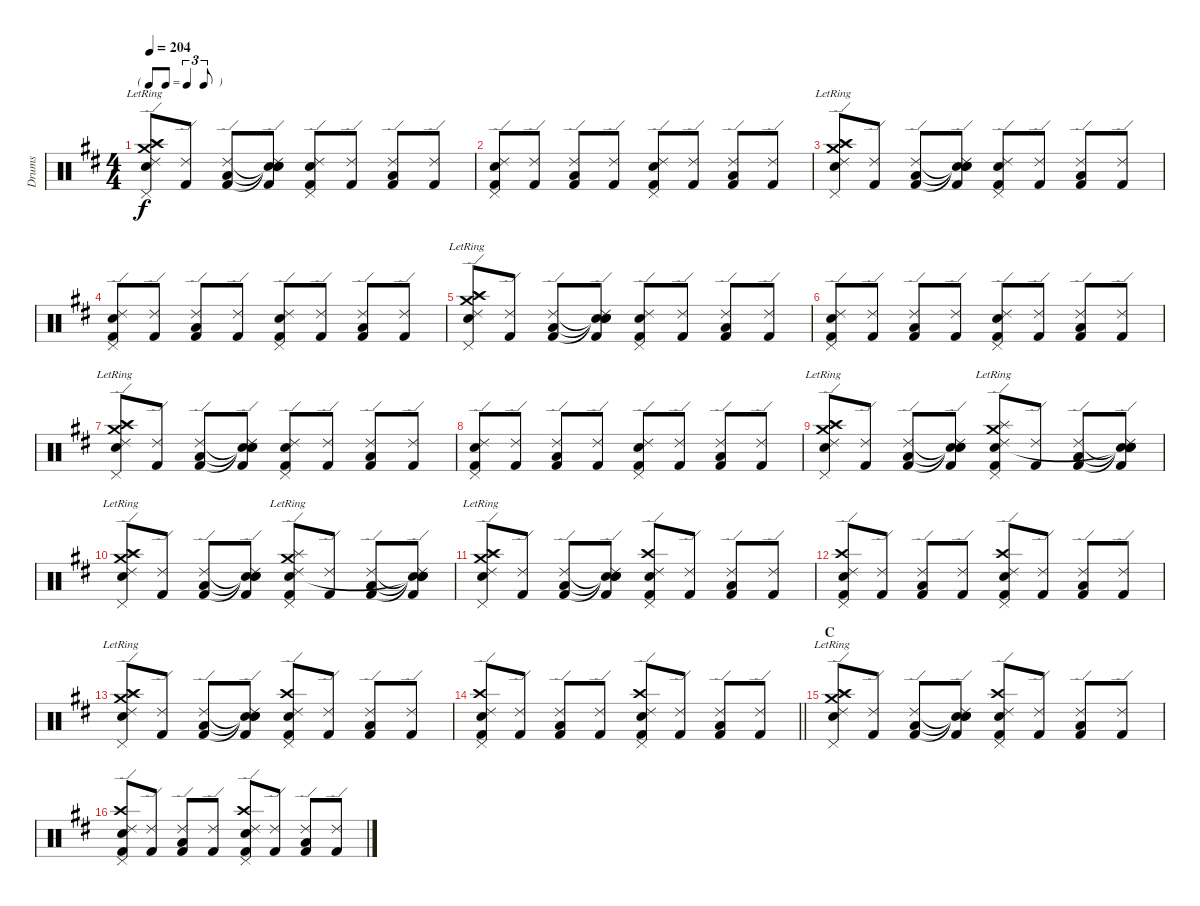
\track ("Drums" "Drums") {instrument percussion}
\staff {score}
\articulation defaults
\ts (4 4)
\tf triplet8th
\tempo 204
\clef neutral
\ks d
("Ride (edge) 2" "Crash medium (hit)" "Crash high (hit)"{lr} "Pedal Hi-Hat (hit)"{lr} "Splash (hit)"{lr} "Snare (hit) 2"{lr}).8{dy f} ("Kick (hit) 2" "Ride (edge) 2").8 ("Low Floor Tom (hit)" "Ride (edge) 2" "Kick (hit) 2").8 ("Snare (hit)"{t} "Snare (hit)"{t} "Snare (hit)"{t} "Kick (hit) 2" "Ride (edge) 2").8 ("Kick (hit) 2" "Snare (hit) 2" "Ride (edge) 2" "Pedal Hi-Hat (hit)").8 ("Kick (hit) 2" "Ride (edge) 2").8 ("Low Floor Tom (hit)" "Ride (edge) 2" "Kick (hit) 2").8 ("Kick (hit) 2" "Ride (edge) 2").8 |
("Kick (hit) 2" "Snare (hit) 2" "Ride (edge) 2" "Pedal Hi-Hat (hit)").8 ("Kick (hit) 2" "Ride (edge) 2").8 ("Low Floor Tom (hit)" "Ride (edge) 2" "Kick (hit) 2").8 ("Kick (hit) 2" "Ride (edge) 2").8 ("Kick (hit) 2" "Snare (hit) 2" "Ride (edge) 2" "Pedal Hi-Hat (hit)").8 ("Kick (hit) 2" "Ride (edge) 2").8 ("Low Floor Tom (hit)" "Ride (edge) 2" "Kick (hit) 2").8 ("Kick (hit) 2" "Ride (edge) 2").8 |
("Ride (edge) 2" "Crash medium (hit)" "Crash high (hit)"{lr} "Pedal Hi-Hat (hit)"{lr} "Splash (hit)"{lr} "Snare (hit) 2"{lr}).8 ("Kick (hit) 2" "Ride (edge) 2").8 ("Low Floor Tom (hit)" "Ride (edge) 2" "Kick (hit) 2").8 ("Snare (hit)"{t} "Snare (hit)"{t} "Snare (hit)"{t} "Kick (hit) 2" "Ride (edge) 2").8 ("Kick (hit) 2" "Snare (hit) 2" "Ride (edge) 2" "Pedal Hi-Hat (hit)").8 ("Kick (hit) 2" "Ride (edge) 2").8 ("Low Floor Tom (hit)" "Ride (edge) 2" "Kick (hit) 2").8 ("Kick (hit) 2" "Ride (edge) 2").8 |
("Kick (hit) 2" "Snare (hit) 2" "Ride (edge) 2" "Pedal Hi-Hat (hit)").8 ("Kick (hit) 2" "Ride (edge) 2").8 ("Low Floor Tom (hit)" "Ride (edge) 2" "Kick (hit) 2").8 ("Kick (hit) 2" "Ride (edge) 2").8 ("Kick (hit) 2" "Snare (hit) 2" "Ride (edge) 2" "Pedal Hi-Hat (hit)").8 ("Kick (hit) 2" "Ride (edge) 2").8 ("Low Floor Tom (hit)" "Ride (edge) 2" "Kick (hit) 2").8 ("Kick (hit) 2" "Ride (edge) 2").8 |
("Ride (edge) 2" "Crash medium (hit)" "Crash high (hit)"{lr} "Pedal Hi-Hat (hit)"{lr} "Splash (hit)"{lr} "Snare (hit) 2"{lr}).8 ("Kick (hit) 2" "Ride (edge) 2").8 ("Low Floor Tom (hit)" "Ride (edge) 2" "Kick (hit) 2").8 ("Snare (hit)"{t} "Snare (hit)"{t} "Snare (hit)"{t} "Kick (hit) 2" "Ride (edge) 2").8 ("Kick (hit) 2" "Snare (hit) 2" "Ride (edge) 2" "Pedal Hi-Hat (hit)").8 ("Kick (hit) 2" "Ride (edge) 2").8 ("Low Floor Tom (hit)" "Ride (edge) 2" "Kick (hit) 2").8 ("Kick (hit) 2" "Ride (edge) 2").8 |
("Kick (hit) 2" "Snare (hit) 2" "Ride (edge) 2" "Pedal Hi-Hat (hit)").8 ("Kick (hit) 2" "Ride (edge) 2").8 ("Low Floor Tom (hit)" "Ride (edge) 2" "Kick (hit) 2").8 ("Kick (hit) 2" "Ride (edge) 2").8 ("Kick (hit) 2" "Snare (hit) 2" "Ride (edge) 2" "Pedal Hi-Hat (hit)").8 ("Kick (hit) 2" "Ride (edge) 2").8 ("Low Floor Tom (hit)" "Ride (edge) 2" "Kick (hit) 2").8 ("Kick (hit) 2" "Ride (edge) 2").8 |
("Ride (edge) 2" "Crash medium (hit)" "Crash high (hit)"{lr} "Pedal Hi-Hat (hit)"{lr} "Splash (hit)"{lr} "Snare (hit) 2"{lr}).8 ("Kick (hit) 2" "Ride (edge) 2").8 ("Low Floor Tom (hit)" "Ride (edge) 2" "Kick (hit) 2").8 ("Snare (hit)"{t} "Snare (hit)"{t} "Snare (hit)"{t} "Kick (hit) 2" "Ride (edge) 2").8 ("Kick (hit) 2" "Snare (hit) 2" "Ride (edge) 2" "Pedal Hi-Hat (hit)").8 ("Kick (hit) 2" "Ride (edge) 2").8 ("Low Floor Tom (hit)" "Ride (edge) 2" "Kick (hit) 2").8 ("Kick (hit) 2" "Ride (edge) 2").8 |
("Kick (hit) 2" "Snare (hit) 2" "Ride (edge) 2" "Pedal Hi-Hat (hit)").8 ("Kick (hit) 2" "Ride (edge) 2").8 ("Low Floor Tom (hit)" "Ride (edge) 2" "Kick (hit) 2").8 ("Kick (hit) 2" "Ride (edge) 2").8 ("Kick (hit) 2" "Snare (hit) 2" "Ride (edge) 2" "Pedal Hi-Hat (hit)").8 ("Kick (hit) 2" "Ride (edge) 2").8 ("Low Floor Tom (hit)" "Ride (edge) 2" "Kick (hit) 2").8 ("Kick (hit) 2" "Ride (edge) 2").8 |
("Ride (edge) 2" "Crash medium (hit)" "Crash high (hit)"{lr} "Pedal Hi-Hat (hit)"{lr} "Splash (hit)"{lr} "Snare (hit) 2"{lr}).8 ("Kick (hit) 2" "Ride (edge) 2").8 ("Low Floor Tom (hit)" "Ride (edge) 2" "Kick (hit) 2").8 ("Snare (hit)"{t} "Snare (hit)"{t} "Snare (hit)"{t} "Kick (hit) 2" "Ride (edge) 2").8 ("Ride (edge) 2"{lr} "Crash medium (hit)"{lr} "Kick (hit) 2"{lr} "Pedal Hi-Hat (hit)"{lr} "Splash (hit)"{lr} "Snare (hit) 2"{lr}).8 ("Kick (hit) 2" "Ride (edge) 2").8 ("Low Floor Tom (hit)" "Ride (edge) 2" "Kick (hit) 2").8 ("Snare (hit)"{t} "Snare (hit)"{t} "Snare (hit)"{t} "Kick (hit) 2" "Ride (edge) 2" "Snare (hit)"{t}).8 |
("Ride (edge) 2" "Crash medium (hit)" "Crash high (hit)"{lr} "Pedal Hi-Hat (hit)"{lr} "Splash (hit)"{lr} "Snare (hit) 2"{lr}).8 ("Kick (hit) 2" "Ride (edge) 2").8 ("Low Floor Tom (hit)" "Ride (edge) 2" "Kick (hit) 2").8 ("Snare (hit)"{t} "Snare (hit)"{t} "Snare (hit)"{t} "Kick (hit) 2" "Ride (edge) 2").8 ("Ride (edge) 2"{lr} "Crash medium (hit)"{lr} "Kick (hit) 2"{lr} "Pedal Hi-Hat (hit)"{lr} "Splash (hit)"{lr} "Snare (hit) 2"{lr}).8 ("Kick (hit) 2" "Ride (edge) 2").8 ("Low Floor Tom (hit)" "Ride (edge) 2" "Kick (hit) 2").8 ("Snare (hit)"{t} "Snare (hit)"{t} "Snare (hit)"{t} "Kick (hit) 2" "Ride (edge) 2" "Snare (hit)"{t}).8 |
("Ride (edge) 2" "Crash medium (hit)" "Crash high (hit)"{lr} "Pedal Hi-Hat (hit)"{lr} "Splash (hit)"{lr} "Snare (hit) 2"{lr}).8 ("Kick (hit) 2" "Ride (edge) 2").8 ("Low Floor Tom (hit)" "Ride (edge) 2" "Kick (hit) 2").8 ("Snare (hit)"{t} "Snare (hit)"{t} "Snare (hit)"{t} "Kick (hit) 2" "Ride (edge) 2").8 ("Crash high (hit)" "Kick (hit) 2" "Snare (hit) 2" "Ride (edge) 2" "Pedal Hi-Hat (hit)").8 ("Kick (hit) 2" "Ride (edge) 2").8 ("Low Floor Tom (hit)" "Ride (edge) 2" "Kick (hit) 2").8 ("Kick (hit) 2" "Ride (edge) 2").8 |
("Crash high (hit)" "Kick (hit) 2" "Snare (hit) 2" "Ride (edge) 2" "Pedal Hi-Hat (hit)").8 ("Kick (hit) 2" "Ride (edge) 2").8 ("Low Floor Tom (hit)" "Ride (edge) 2" "Kick (hit) 2").8 ("Kick (hit) 2" "Ride (edge) 2").8 ("Crash high (hit)" "Kick (hit) 2" "Snare (hit) 2" "Ride (edge) 2" "Pedal Hi-Hat (hit)").8 ("Kick (hit) 2" "Ride (edge) 2").8 ("Low Floor Tom (hit)" "Ride (edge) 2" "Kick (hit) 2").8 ("Kick (hit) 2" "Ride (edge) 2").8 |
("Ride (edge) 2" "Crash medium (hit)" "Crash high (hit)"{lr} "Pedal Hi-Hat (hit)"{lr} "Splash (hit)"{lr} "Snare (hit) 2"{lr}).8 ("Kick (hit) 2" "Ride (edge) 2").8 ("Low Floor Tom (hit)" "Ride (edge) 2" "Kick (hit) 2").8 ("Snare (hit)"{t} "Snare (hit)"{t} "Snare (hit)"{t} "Kick (hit) 2" "Ride (edge) 2").8 ("Crash high (hit)" "Kick (hit) 2" "Snare (hit) 2" "Ride (edge) 2" "Pedal Hi-Hat (hit)").8 ("Kick (hit) 2" "Ride (edge) 2").8 ("Low Floor Tom (hit)" "Ride (edge) 2" "Kick (hit) 2").8 ("Kick (hit) 2" "Ride (edge) 2").8 |
\barLineRight lightlight
("Crash high (hit)" "Kick (hit) 2" "Snare (hit) 2" "Ride (edge) 2" "Pedal Hi-Hat (hit)").8 ("Kick (hit) 2" "Ride (edge) 2").8 ("Low Floor Tom (hit)" "Ride (edge) 2" "Kick (hit) 2").8 ("Kick (hit) 2" "Ride (edge) 2").8 ("Crash high (hit)" "Kick (hit) 2" "Snare (hit) 2" "Ride (edge) 2" "Pedal Hi-Hat (hit)").8 ("Kick (hit) 2" "Ride (edge) 2").8 ("Low Floor Tom (hit)" "Ride (edge) 2" "Kick (hit) 2").8 ("Kick (hit) 2" "Ride (edge) 2").8 |
\section ("" "C")
("Ride (edge) 2" "Crash medium (hit)" "Crash high (hit)"{lr} "Pedal Hi-Hat (hit)"{lr} "Splash (hit)"{lr} "Snare (hit) 2"{lr}).8 ("Kick (hit) 2" "Ride (edge) 2").8 ("Low Floor Tom (hit)" "Ride (edge) 2" "Kick (hit) 2").8 ("Snare (hit)"{t} "Snare (hit)"{t} "Snare (hit)"{t} "Kick (hit) 2" "Ride (edge) 2").8 ("Crash high (hit)" "Kick (hit) 2" "Snare (hit) 2" "Ride (edge) 2" "Pedal Hi-Hat (hit)").8 ("Kick (hit) 2" "Ride (edge) 2").8 ("Low Floor Tom (hit)" "Ride (edge) 2" "Kick (hit) 2").8 ("Kick (hit) 2" "Ride (edge) 2").8 |
("Crash high (hit)" "Kick (hit) 2" "Snare (hit) 2" "Ride (edge) 2" "Pedal Hi-Hat (hit)").8 ("Kick (hit) 2" "Ride (edge) 2").8 ("Low Floor Tom (hit)" "Ride (edge) 2" "Kick (hit) 2").8 ("Kick (hit) 2" "Ride (edge) 2").8 ("Crash high (hit)" "Kick (hit) 2" "Snare (hit) 2" "Ride (edge) 2" "Pedal Hi-Hat (hit)").8 ("Kick (hit) 2" "Ride (edge) 2").8 ("Low Floor Tom (hit)" "Ride (edge) 2" "Kick (hit) 2").8 ("Kick (hit) 2" "Ride (edge) 2").8
